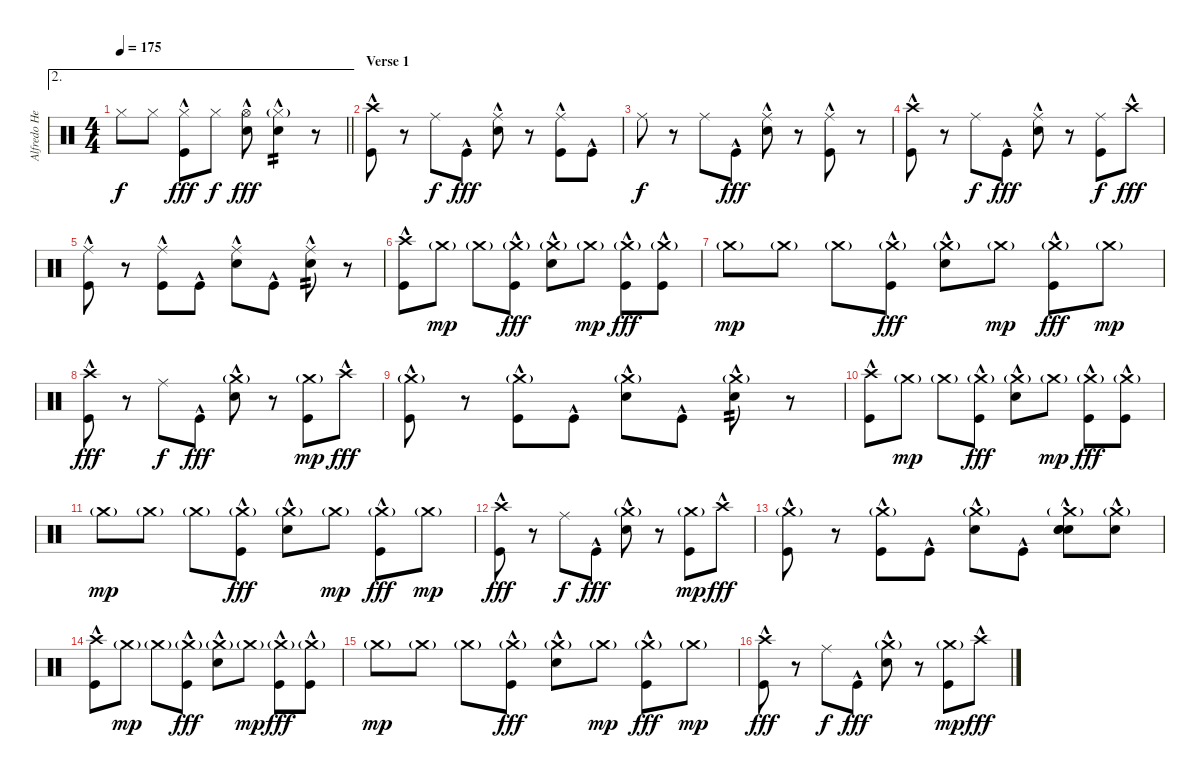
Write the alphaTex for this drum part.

\track ("Alfredo Hernández - Drums" "Alfredo He") {instrument percussion}
\staff {score}
\articulation defaults
\ae 2
\ts (4 4)
\tempo 175
\clef neutral
\barLineRight lightlight
\ks c "Hi-Hat (closed)".8{dy f} "Hi-Hat (closed)".8
("Hi-Hat (closed)" "Kick (hit)"{hac}).8{dy fff} "Hi-Hat (closed)".8{dy f} ("Hi-Hat (open)" "Snare (hit) 2"{hac}).8{dy fff} ("Hi-Hat (closed)"{g} "Snare (hit) 2"{hac}).4{tp 2} r.8 |
\section ("" "Verse 1")
("Crash high (hit)"{hac} "Kick (hit)"{hac}).8 r.8 "Ride (middle)".8{dy f} "Kick (hit)"{hac}.8{dy fff} ("Ride (middle)" "Snare (hit) 2"{hac}).8 r.8 ("Ride (middle)" "Kick (hit)"{hac}).8 "Kick (hit)"{hac}.8 |
"Ride (middle)".8{dy f} r.8 "Ride (middle)".8 "Kick (hit)"{hac}.8{dy fff} ("Ride (middle)" "Snare (hit) 2"{hac}).8 r.8 ("Ride (middle)" "Kick (hit)"{hac}).8 r.8 |
("Crash high (hit)"{hac} "Kick (hit)"{hac}).8 r.8 "Ride (middle)".8{dy f} "Kick (hit)"{hac}.8{dy fff} ("Ride (middle)" "Snare (hit) 2"{hac}).8 r.8 ("Ride (middle)" "Kick (hit)").8{dy f} "Crash high (hit)"{hac}.8{dy fff} |
("Ride (middle)"{hac} "Kick (hit)"{hac}).8 r.8 ("Ride (middle)" "Kick (hit)"{hac}).8 "Kick (hit)"{hac}.8 ("Ride (middle)" "Snare (hit) 2"{hac}).8 "Kick (hit)"{hac}.8 ("Ride (middle)" "Snare (hit) 2"{hac}).8{tp 2} r.8 |
("Crash high (hit)"{hac} "Kick (hit)"{hac}).8 "Crash medium (hit)"{g}.8{dy mp} "Crash medium (hit)"{g}.8 ("Crash medium (hit)"{g} "Kick (hit)"{hac}).8{dy fff} ("Crash medium (hit)"{g} "Snare (hit) 2"{hac}).8 "Crash medium (hit)"{g}.8{dy mp} ("Crash medium (hit)"{g} "Kick (hit)"{hac}).8{dy fff} ("Crash medium (hit)"{g} "Kick (hit)"{hac}).8 |
"Crash medium (hit)"{g}.8{dy mp} "Crash medium (hit)"{g}.8 "Crash medium (hit)"{g}.8 ("Crash medium (hit)"{g} "Kick (hit)"{hac}).8{dy fff} ("Crash medium (hit)"{g} "Snare (hit) 2"{hac}).8 "Crash medium (hit)"{g}.8{dy mp} ("Crash medium (hit)"{g} "Kick (hit)"{hac}).8{dy fff} "Crash medium (hit)"{g}.8{dy mp} |
("Crash high (hit)"{hac} "Kick (hit)"{hac}).8{dy fff} r.8 "Ride (middle)".8{dy f} "Kick (hit)"{hac}.8{dy fff} ("Crash medium (hit)"{g} "Snare (hit) 2"{hac}).8 r.8 ("Crash medium (hit)"{g} "Kick (hit)").8{dy mp} "Crash high (hit)"{hac}.8{dy fff} |
("Crash medium (hit)"{g} "Kick (hit)"{hac}).8 r.8 ("Crash medium (hit)"{g} "Kick (hit)"{hac}).8 "Kick (hit)"{hac}.8 ("Crash medium (hit)"{g} "Snare (hit) 2"{hac}).8 "Kick (hit)"{hac}.8 ("Crash medium (hit)"{g} "Snare (hit) 2"{hac}).8{tp 2} r.8 |
("Crash high (hit)"{hac} "Kick (hit)"{hac}).8 "Crash medium (hit)"{g}.8{dy mp} "Crash medium (hit)"{g}.8 ("Crash medium (hit)"{g} "Kick (hit)"{hac}).8{dy fff} ("Crash medium (hit)"{g} "Snare (hit) 2"{hac}).8 "Crash medium (hit)"{g}.8{dy mp} ("Crash medium (hit)"{g} "Kick (hit)"{hac}).8{dy fff} ("Crash medium (hit)"{g} "Kick (hit)"{hac}).8 |
"Crash medium (hit)"{g}.8{dy mp} "Crash medium (hit)"{g}.8 "Crash medium (hit)"{g}.8 ("Crash medium (hit)"{g} "Kick (hit)"{hac}).8{dy fff} ("Crash medium (hit)"{g} "Snare (hit) 2"{hac}).8 "Crash medium (hit)"{g}.8{dy mp} ("Crash medium (hit)"{g} "Kick (hit)"{hac}).8{dy fff} "Crash medium (hit)"{g}.8{dy mp} |
("Crash high (hit)"{hac} "Kick (hit)"{hac}).8{dy fff} r.8 "Ride (middle)".8{dy f} "Kick (hit)"{hac}.8{dy fff} ("Crash medium (hit)"{g} "Snare (hit) 2"{hac}).8 r.8 ("Crash medium (hit)"{g} "Kick (hit)").8{dy mp} "Crash high (hit)"{hac}.8{dy fff} |
("Crash medium (hit)"{g} "Kick (hit)"{hac}).8 r.8 ("Crash medium (hit)"{g} "Kick (hit)"{hac}).8 "Kick (hit)"{hac}.8 ("Crash medium (hit)"{g} "Snare (hit) 2"{hac}).8 "Kick (hit)"{hac}.8 ("Crash medium (hit)"{g} "Snare (hit) 2"{hac} "Snare (hit) 2" "Snare (hit) 2"{hac}).8{bd 480} ("Crash medium (hit)"{g} "Snare (hit) 2"{hac}).8 |
("Crash high (hit)"{hac} "Kick (hit)"{hac}).8 "Crash medium (hit)"{g}.8{dy mp} "Crash medium (hit)"{g}.8 ("Crash medium (hit)"{g} "Kick (hit)"{hac}).8{dy fff} ("Crash medium (hit)"{g} "Snare (hit) 2"{hac}).8 "Crash medium (hit)"{g}.8{dy mp} ("Crash medium (hit)"{g} "Kick (hit)"{hac}).8{dy fff} ("Crash medium (hit)"{g} "Kick (hit)"{hac}).8 |
"Crash medium (hit)"{g}.8{dy mp} "Crash medium (hit)"{g}.8 "Crash medium (hit)"{g}.8 ("Crash medium (hit)"{g} "Kick (hit)"{hac}).8{dy fff} ("Crash medium (hit)"{g} "Snare (hit) 2"{hac}).8 "Crash medium (hit)"{g}.8{dy mp} ("Crash medium (hit)"{g} "Kick (hit)"{hac}).8{dy fff} "Crash medium (hit)"{g}.8{dy mp} |
("Crash high (hit)"{hac} "Kick (hit)"{hac}).8{dy fff} r.8 "Ride (middle)".8{dy f} "Kick (hit)"{hac}.8{dy fff} ("Crash medium (hit)"{g} "Snare (hit) 2"{hac}).8 r.8 ("Crash medium (hit)"{g} "Kick (hit)").8{dy mp} "Crash high (hit)"{hac}.8{dy fff}
